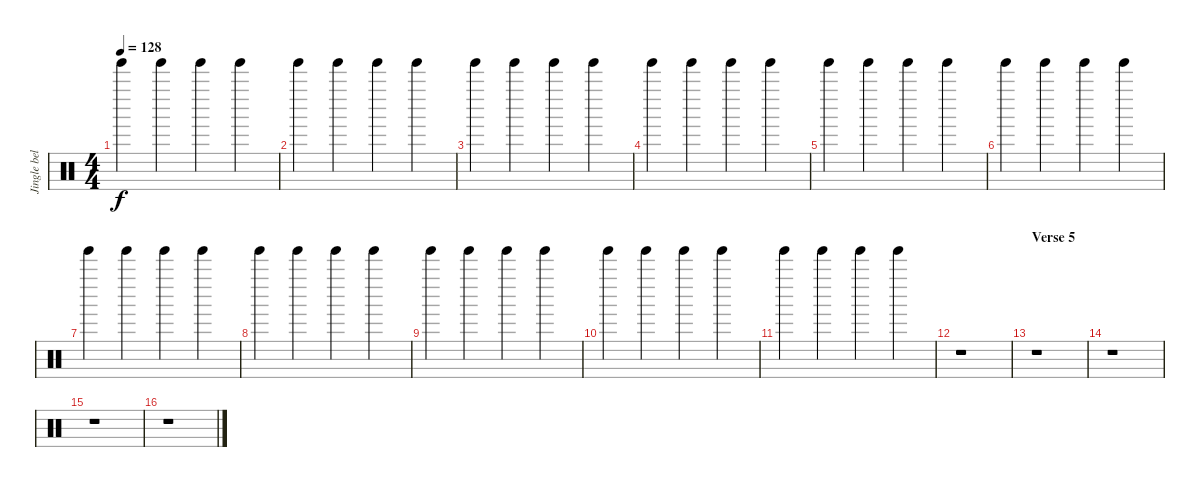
\track ("Jingle bell" "Jingle bel") {instrument percussion}
\staff {score}
\articulation defaults
\ts (4 4)
\tempo 128
\clef neutral
\ks c "Tinkle Bell (hit)".4{dy f} "Tinkle Bell (hit)".4 "Tinkle Bell (hit)".4 "Tinkle Bell (hit)".4
|
"Tinkle Bell (hit)".4 "Tinkle Bell (hit)".4 "Tinkle Bell (hit)".4 "Tinkle Bell (hit)".4 |
"Tinkle Bell (hit)".4 "Tinkle Bell (hit)".4 "Tinkle Bell (hit)".4 "Tinkle Bell (hit)".4 |
"Tinkle Bell (hit)".4 "Tinkle Bell (hit)".4 "Tinkle Bell (hit)".4 "Tinkle Bell (hit)".4 |
"Tinkle Bell (hit)".4 "Tinkle Bell (hit)".4 "Tinkle Bell (hit)".4 "Tinkle Bell (hit)".4 |
"Tinkle Bell (hit)".4 "Tinkle Bell (hit)".4 "Tinkle Bell (hit)".4 "Tinkle Bell (hit)".4 |
"Tinkle Bell (hit)".4 "Tinkle Bell (hit)".4 "Tinkle Bell (hit)".4 "Tinkle Bell (hit)".4 |
"Tinkle Bell (hit)".4 "Tinkle Bell (hit)".4 "Tinkle Bell (hit)".4 "Tinkle Bell (hit)".4 |
"Tinkle Bell (hit)".4 "Tinkle Bell (hit)".4 "Tinkle Bell (hit)".4 "Tinkle Bell (hit)".4 |
"Tinkle Bell (hit)".4 "Tinkle Bell (hit)".4 "Tinkle Bell (hit)".4 "Tinkle Bell (hit)".4 |
"Tinkle Bell (hit)".4 "Tinkle Bell (hit)".4 "Tinkle Bell (hit)".4 "Tinkle Bell (hit)".4 |
r.1 |
\section ("" "Verse 5")
r.1 |
r.1 |
r.1 |
r.1
